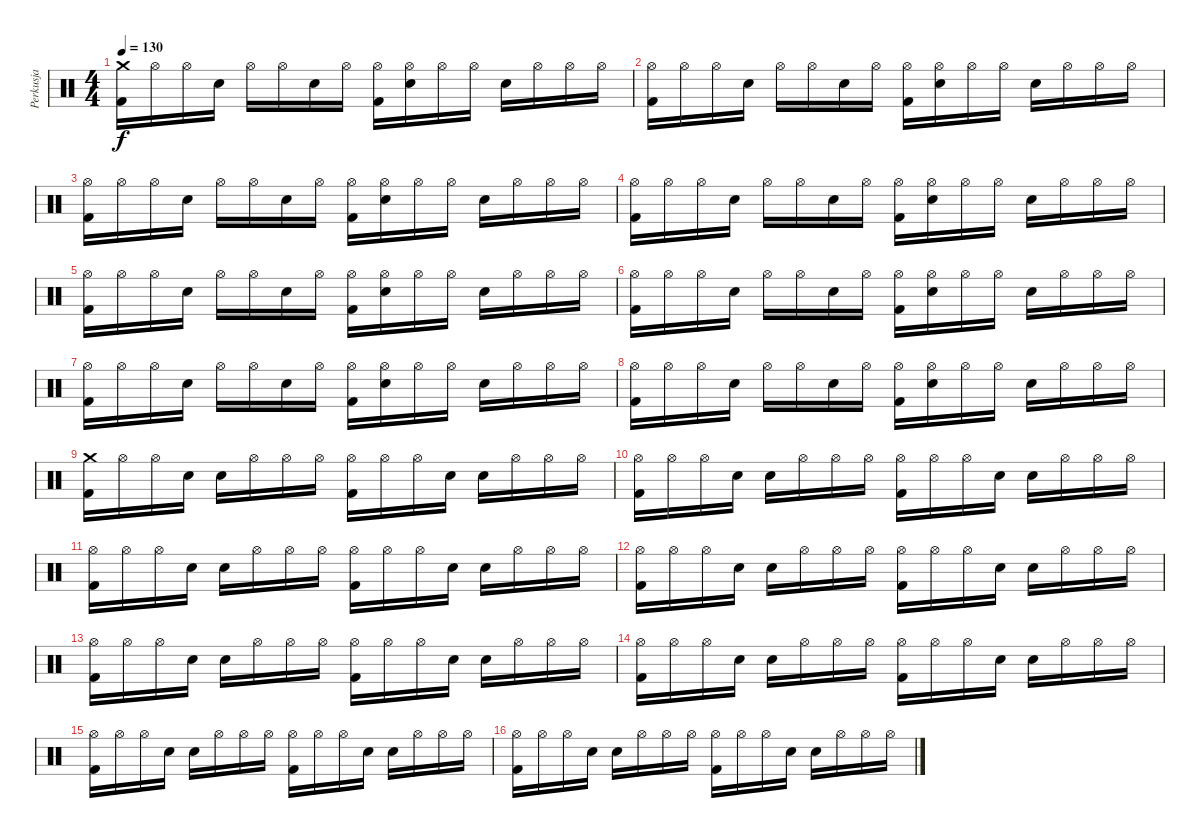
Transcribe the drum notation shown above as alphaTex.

\track ("Perkusja" "Perkusja") {instrument percussion}
\staff {score}
\articulation defaults
\ts (4 4)
\tempo 130
\clef neutral
\ks c
("Crash medium (hit)" "Kick (hit) 2").16{dy f} "Hi-Hat (open)".16 "Hi-Hat (open)".16 "Electric Snare (hit)".16 "Hi-Hat (open)".16 "Hi-Hat (open)".16 "Electric Snare (hit)".16 "Hi-Hat (open)".16 ("Hi-Hat (open)" "Kick (hit) 2").16 ("Hi-Hat (open)" "Electric Snare (hit)").16 "Hi-Hat (open)".16 "Hi-Hat (open)".16 "Electric Snare (hit)".16 "Hi-Hat (open)".16 "Hi-Hat (open)".16 "Hi-Hat (open)".16 |
("Hi-Hat (open)" "Kick (hit) 2").16 "Hi-Hat (open)".16 "Hi-Hat (open)".16 "Electric Snare (hit)".16 "Hi-Hat (open)".16 "Hi-Hat (open)".16 "Electric Snare (hit)".16 "Hi-Hat (open)".16 ("Hi-Hat (open)" "Kick (hit) 2").16 ("Hi-Hat (open)" "Electric Snare (hit)").16 "Hi-Hat (open)".16 "Hi-Hat (open)".16 "Electric Snare (hit)".16 "Hi-Hat (open)".16 "Hi-Hat (open)".16 "Hi-Hat (open)".16 |
("Hi-Hat (open)" "Kick (hit) 2").16 "Hi-Hat (open)".16 "Hi-Hat (open)".16 "Electric Snare (hit)".16 "Hi-Hat (open)".16 "Hi-Hat (open)".16 "Electric Snare (hit)".16 "Hi-Hat (open)".16 ("Hi-Hat (open)" "Kick (hit) 2").16 ("Hi-Hat (open)" "Electric Snare (hit)").16 "Hi-Hat (open)".16 "Hi-Hat (open)".16 "Electric Snare (hit)".16 "Hi-Hat (open)".16 "Hi-Hat (open)".16 "Hi-Hat (open)".16 |
("Hi-Hat (open)" "Kick (hit) 2").16 "Hi-Hat (open)".16 "Hi-Hat (open)".16 "Electric Snare (hit)".16 "Hi-Hat (open)".16 "Hi-Hat (open)".16 "Electric Snare (hit)".16 "Hi-Hat (open)".16 ("Hi-Hat (open)" "Kick (hit) 2").16 ("Hi-Hat (open)" "Electric Snare (hit)").16 "Hi-Hat (open)".16 "Hi-Hat (open)".16 "Electric Snare (hit)".16 "Hi-Hat (open)".16 "Hi-Hat (open)".16 "Hi-Hat (open)".16 |
("Hi-Hat (open)" "Kick (hit) 2").16 "Hi-Hat (open)".16 "Hi-Hat (open)".16 "Electric Snare (hit)".16 "Hi-Hat (open)".16 "Hi-Hat (open)".16 "Electric Snare (hit)".16 "Hi-Hat (open)".16 ("Hi-Hat (open)" "Kick (hit) 2").16 ("Hi-Hat (open)" "Electric Snare (hit)").16 "Hi-Hat (open)".16 "Hi-Hat (open)".16 "Electric Snare (hit)".16 "Hi-Hat (open)".16 "Hi-Hat (open)".16 "Hi-Hat (open)".16 |
("Hi-Hat (open)" "Kick (hit) 2").16 "Hi-Hat (open)".16 "Hi-Hat (open)".16 "Electric Snare (hit)".16 "Hi-Hat (open)".16 "Hi-Hat (open)".16 "Electric Snare (hit)".16 "Hi-Hat (open)".16 ("Hi-Hat (open)" "Kick (hit) 2").16 ("Hi-Hat (open)" "Electric Snare (hit)").16 "Hi-Hat (open)".16 "Hi-Hat (open)".16 "Electric Snare (hit)".16 "Hi-Hat (open)".16 "Hi-Hat (open)".16 "Hi-Hat (open)".16 |
("Hi-Hat (open)" "Kick (hit) 2").16 "Hi-Hat (open)".16 "Hi-Hat (open)".16 "Electric Snare (hit)".16 "Hi-Hat (open)".16 "Hi-Hat (open)".16 "Electric Snare (hit)".16 "Hi-Hat (open)".16 ("Hi-Hat (open)" "Kick (hit) 2").16 ("Hi-Hat (open)" "Electric Snare (hit)").16 "Hi-Hat (open)".16 "Hi-Hat (open)".16 "Electric Snare (hit)".16 "Hi-Hat (open)".16 "Hi-Hat (open)".16 "Hi-Hat (open)".16 |
("Hi-Hat (open)" "Kick (hit) 2").16 "Hi-Hat (open)".16 "Hi-Hat (open)".16 "Electric Snare (hit)".16 "Hi-Hat (open)".16 "Hi-Hat (open)".16 "Electric Snare (hit)".16 "Hi-Hat (open)".16 ("Hi-Hat (open)" "Kick (hit) 2").16 ("Hi-Hat (open)" "Electric Snare (hit)").16 "Hi-Hat (open)".16 "Hi-Hat (open)".16 "Electric Snare (hit)".16 "Hi-Hat (open)".16 "Hi-Hat (open)".16 "Hi-Hat (open)".16 |
("Crash medium (hit)" "Kick (hit) 2").16 "Hi-Hat (open)".16 "Hi-Hat (open)".16 "Electric Snare (hit)".16 "Electric Snare (hit)".16 "Hi-Hat (open)".16 "Hi-Hat (open)".16 "Hi-Hat (open)".16 ("Hi-Hat (open)" "Kick (hit) 2").16 "Hi-Hat (open)".16 "Hi-Hat (open)".16 "Electric Snare (hit)".16 "Electric Snare (hit)".16 "Hi-Hat (open)".16 "Hi-Hat (open)".16 "Hi-Hat (open)".16 |
("Hi-Hat (open)" "Kick (hit) 2").16 "Hi-Hat (open)".16 "Hi-Hat (open)".16 "Electric Snare (hit)".16 "Electric Snare (hit)".16 "Hi-Hat (open)".16 "Hi-Hat (open)".16 "Hi-Hat (open)".16 ("Hi-Hat (open)" "Kick (hit) 2").16 "Hi-Hat (open)".16 "Hi-Hat (open)".16 "Electric Snare (hit)".16 "Electric Snare (hit)".16 "Hi-Hat (open)".16 "Hi-Hat (open)".16 "Hi-Hat (open)".16 |
("Hi-Hat (open)" "Kick (hit) 2").16 "Hi-Hat (open)".16 "Hi-Hat (open)".16 "Electric Snare (hit)".16 "Electric Snare (hit)".16 "Hi-Hat (open)".16 "Hi-Hat (open)".16 "Hi-Hat (open)".16 ("Hi-Hat (open)" "Kick (hit) 2").16 "Hi-Hat (open)".16 "Hi-Hat (open)".16 "Electric Snare (hit)".16 "Electric Snare (hit)".16 "Hi-Hat (open)".16 "Hi-Hat (open)".16 "Hi-Hat (open)".16 |
("Hi-Hat (open)" "Kick (hit) 2").16 "Hi-Hat (open)".16 "Hi-Hat (open)".16 "Electric Snare (hit)".16 "Electric Snare (hit)".16 "Hi-Hat (open)".16 "Hi-Hat (open)".16 "Hi-Hat (open)".16 ("Hi-Hat (open)" "Kick (hit) 2").16 "Hi-Hat (open)".16 "Hi-Hat (open)".16 "Electric Snare (hit)".16 "Electric Snare (hit)".16 "Hi-Hat (open)".16 "Hi-Hat (open)".16 "Hi-Hat (open)".16 |
("Hi-Hat (open)" "Kick (hit) 2").16 "Hi-Hat (open)".16 "Hi-Hat (open)".16 "Electric Snare (hit)".16 "Electric Snare (hit)".16 "Hi-Hat (open)".16 "Hi-Hat (open)".16 "Hi-Hat (open)".16 ("Hi-Hat (open)" "Kick (hit) 2").16 "Hi-Hat (open)".16 "Hi-Hat (open)".16 "Electric Snare (hit)".16 "Electric Snare (hit)".16 "Hi-Hat (open)".16 "Hi-Hat (open)".16 "Hi-Hat (open)".16 |
("Hi-Hat (open)" "Kick (hit) 2").16 "Hi-Hat (open)".16 "Hi-Hat (open)".16 "Electric Snare (hit)".16 "Electric Snare (hit)".16 "Hi-Hat (open)".16 "Hi-Hat (open)".16 "Hi-Hat (open)".16 ("Hi-Hat (open)" "Kick (hit) 2").16 "Hi-Hat (open)".16 "Hi-Hat (open)".16 "Electric Snare (hit)".16 "Electric Snare (hit)".16 "Hi-Hat (open)".16 "Hi-Hat (open)".16 "Hi-Hat (open)".16 |
("Hi-Hat (open)" "Kick (hit) 2").16 "Hi-Hat (open)".16 "Hi-Hat (open)".16 "Electric Snare (hit)".16 "Electric Snare (hit)".16 "Hi-Hat (open)".16 "Hi-Hat (open)".16 "Hi-Hat (open)".16 ("Hi-Hat (open)" "Kick (hit) 2").16 "Hi-Hat (open)".16 "Hi-Hat (open)".16 "Electric Snare (hit)".16 "Electric Snare (hit)".16 "Hi-Hat (open)".16 "Hi-Hat (open)".16 "Hi-Hat (open)".16 |
("Hi-Hat (open)" "Kick (hit) 2").16 "Hi-Hat (open)".16 "Hi-Hat (open)".16 "Electric Snare (hit)".16 "Electric Snare (hit)".16 "Hi-Hat (open)".16 "Hi-Hat (open)".16 "Hi-Hat (open)".16 ("Hi-Hat (open)" "Kick (hit) 2").16 "Hi-Hat (open)".16 "Hi-Hat (open)".16 "Electric Snare (hit)".16 "Electric Snare (hit)".16 "Hi-Hat (open)".16 "Hi-Hat (open)".16 "Hi-Hat (open)".16
